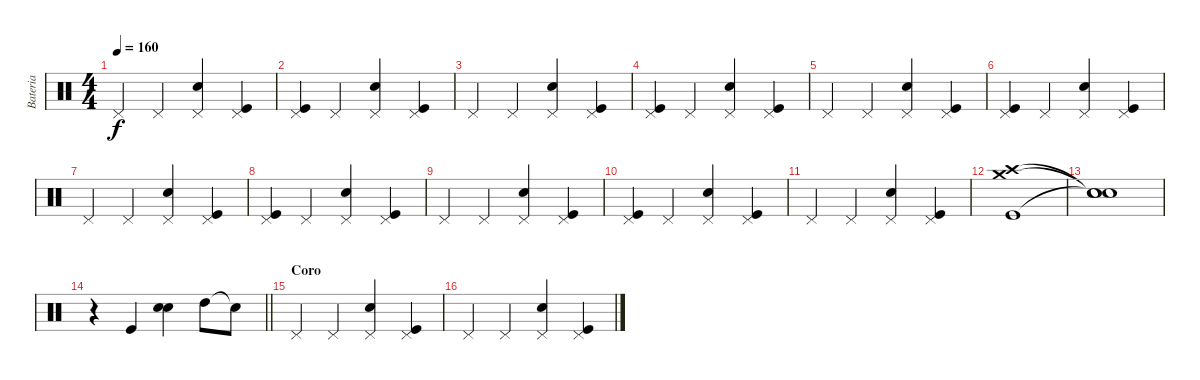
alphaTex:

\track ("Bateria" "Bateria") {instrument percussion}
\staff {score}
\articulation defaults
\ts (4 4)
\tempo 160
\clef neutral
\ks c "Pedal Hi-Hat (hit)".4{dy f} "Pedal Hi-Hat (hit)".4
("Snare (hit) 2" "Pedal Hi-Hat (hit)").4 ("Kick (hit)" "Pedal Hi-Hat (hit)").4 |
("Kick (hit)" "Pedal Hi-Hat (hit)").4 "Pedal Hi-Hat (hit)".4 ("Snare (hit) 2" "Pedal Hi-Hat (hit)").4 ("Kick (hit)" "Pedal Hi-Hat (hit)").4 |
"Pedal Hi-Hat (hit)".4 "Pedal Hi-Hat (hit)".4 ("Snare (hit) 2" "Pedal Hi-Hat (hit)").4 ("Kick (hit)" "Pedal Hi-Hat (hit)").4 |
("Kick (hit)" "Pedal Hi-Hat (hit)").4 "Pedal Hi-Hat (hit)".4 ("Snare (hit) 2" "Pedal Hi-Hat (hit)").4 ("Kick (hit)" "Pedal Hi-Hat (hit)").4 |
"Pedal Hi-Hat (hit)".4 "Pedal Hi-Hat (hit)".4 ("Snare (hit) 2" "Pedal Hi-Hat (hit)").4 ("Kick (hit)" "Pedal Hi-Hat (hit)").4 |
("Kick (hit)" "Pedal Hi-Hat (hit)").4 "Pedal Hi-Hat (hit)".4 ("Snare (hit) 2" "Pedal Hi-Hat (hit)").4 ("Kick (hit)" "Pedal Hi-Hat (hit)").4 |
"Pedal Hi-Hat (hit)".4 "Pedal Hi-Hat (hit)".4 ("Snare (hit) 2" "Pedal Hi-Hat (hit)").4 ("Kick (hit)" "Pedal Hi-Hat (hit)").4 |
("Kick (hit)" "Pedal Hi-Hat (hit)").4 "Pedal Hi-Hat (hit)".4 ("Snare (hit) 2" "Pedal Hi-Hat (hit)").4 ("Kick (hit)" "Pedal Hi-Hat (hit)").4 |
"Pedal Hi-Hat (hit)".4 "Pedal Hi-Hat (hit)".4 ("Snare (hit) 2" "Pedal Hi-Hat (hit)").4 ("Kick (hit)" "Pedal Hi-Hat (hit)").4 |
("Kick (hit)" "Pedal Hi-Hat (hit)").4 "Pedal Hi-Hat (hit)".4 ("Snare (hit) 2" "Pedal Hi-Hat (hit)").4 ("Kick (hit)" "Pedal Hi-Hat (hit)").4 |
"Pedal Hi-Hat (hit)".4 "Pedal Hi-Hat (hit)".4 ("Snare (hit) 2" "Pedal Hi-Hat (hit)").4 ("Kick (hit)" "Pedal Hi-Hat (hit)").4 |
("Crash medium (hit)" "Kick (hit)" "Crash high (hit)").1 |
("Snare (hit)"{t} "Snare (hit)"{t} "Snare (hit)"{t}).1 |
\barLineRight lightlight
r.4 "Kick (hit)".4 ("Snare (hit) 2" "Snare (hit) 2").4 "High Tom (hit)".8 "Snare (hit)"{t}.8 |
\section ("" "Coro")
"Pedal Hi-Hat (hit)".4 "Pedal Hi-Hat (hit)".4 ("Snare (hit) 2" "Pedal Hi-Hat (hit)").4 ("Kick (hit)" "Pedal Hi-Hat (hit)").4 |
"Pedal Hi-Hat (hit)".4 "Pedal Hi-Hat (hit)".4 ("Snare (hit) 2" "Pedal Hi-Hat (hit)").4 ("Kick (hit)" "Pedal Hi-Hat (hit)").4
